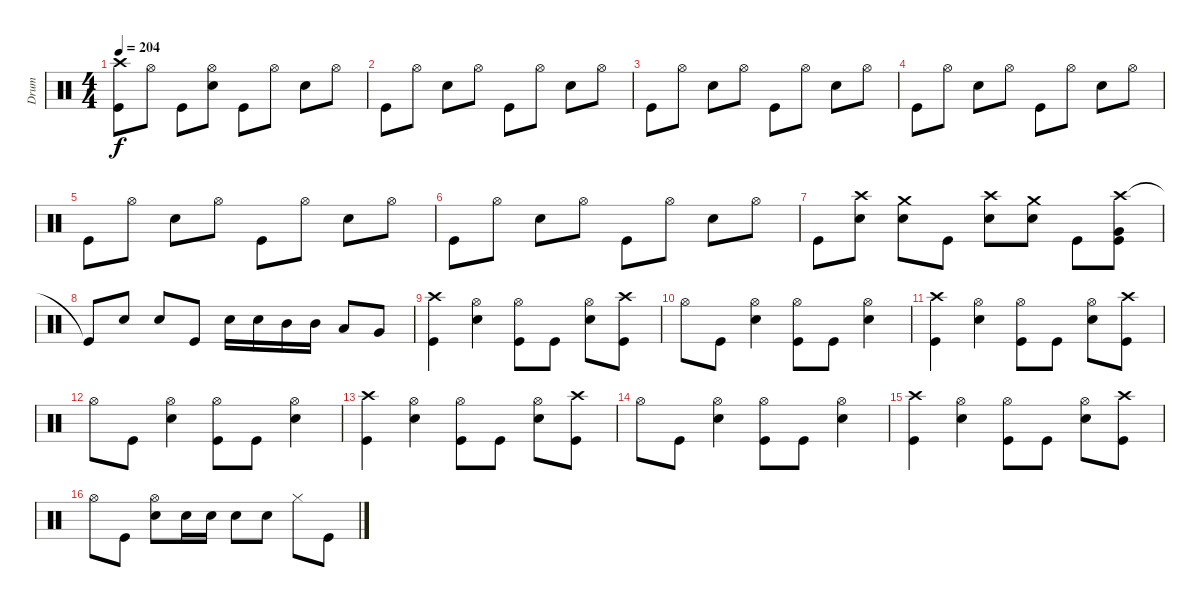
\track ("Drum" "Drum") {instrument percussion}
\staff {score}
\articulation defaults
\ts (4 4)
\tempo 204
\clef neutral
\ks c
("Crash high (hit)" "Kick (hit)").8{dy f} "Hi-Hat (open)".8 "Kick (hit)".8 ("Hi-Hat (open)" "Snare (hit) 2").8 "Kick (hit)".8 "Hi-Hat (open)".8 "Snare (hit) 2".8 "Hi-Hat (open)".8 |
"Kick (hit)".8 "Hi-Hat (open)".8 "Snare (hit) 2".8 "Hi-Hat (open)".8 "Kick (hit)".8 "Hi-Hat (open)".8 "Snare (hit) 2".8 "Hi-Hat (open)".8 |
"Kick (hit)".8 "Hi-Hat (open)".8 "Snare (hit) 2".8 "Hi-Hat (open)".8 "Kick (hit)".8 "Hi-Hat (open)".8 "Snare (hit) 2".8 "Hi-Hat (open)".8 |
"Kick (hit)".8 "Hi-Hat (open)".8 "Snare (hit) 2".8 "Hi-Hat (open)".8 "Kick (hit)".8 "Hi-Hat (open)".8 "Snare (hit) 2".8 "Hi-Hat (open)".8 |
"Kick (hit)".8 "Hi-Hat (open)".8 "Snare (hit) 2".8 "Hi-Hat (open)".8 "Kick (hit)".8 "Hi-Hat (open)".8 "Snare (hit) 2".8 "Hi-Hat (open)".8 |
"Kick (hit)".8 "Hi-Hat (open)".8 "Snare (hit) 2".8 "Hi-Hat (open)".8 "Kick (hit)".8 "Hi-Hat (open)".8 "Snare (hit) 2".8 "Hi-Hat (open)".8 |
"Kick (hit)".8 ("Crash high (hit)" "Snare (hit) 2").8 ("Crash medium (hit)" "Snare (hit) 2").8 "Kick (hit)".8 ("Crash high (hit)" "Snare (hit) 2").8 ("Crash medium (hit)" "Snare (hit) 2").8 "Kick (hit)".8 ("Crash high (hit)" "Very Low Tom (hit)" "Kick (hit)").8 |
"Kick (hit)"{t}.8 "Snare (hit) 2".8 "Snare (hit) 2".8 "Kick (hit)".8 "Snare (hit) 2".16 "Snare (hit) 2".16 "Mid Tom (hit)".16 "Mid Tom (hit)".16 "Low Tom (hit)".8 "Very Low Tom (hit)".8 |
("Crash high (hit)" "Kick (hit)").4 ("Hi-Hat (open)" "Snare (hit) 2").4 ("Hi-Hat (open)" "Kick (hit)").8 "Kick (hit)".8 ("Hi-Hat (open)" "Snare (hit) 2").8 ("Crash high (hit)" "Kick (hit)").8 |
"Hi-Hat (open)".8 "Kick (hit)".8 ("Hi-Hat (open)" "Snare (hit) 2").4 ("Hi-Hat (open)" "Kick (hit)").8 "Kick (hit)".8 ("Hi-Hat (open)" "Snare (hit) 2").4 |
("Crash high (hit)" "Kick (hit)").4 ("Hi-Hat (open)" "Snare (hit) 2").4 ("Hi-Hat (open)" "Kick (hit)").8 "Kick (hit)".8 ("Hi-Hat (open)" "Snare (hit) 2").8 ("Crash high (hit)" "Kick (hit)").8 |
"Hi-Hat (open)".8 "Kick (hit)".8 ("Hi-Hat (open)" "Snare (hit) 2").4 ("Hi-Hat (open)" "Kick (hit)").8 "Kick (hit)".8 ("Hi-Hat (open)" "Snare (hit) 2").4 |
("Crash high (hit)" "Kick (hit)").4 ("Hi-Hat (open)" "Snare (hit) 2").4 ("Hi-Hat (open)" "Kick (hit)").8 "Kick (hit)".8 ("Hi-Hat (open)" "Snare (hit) 2").8 ("Crash high (hit)" "Kick (hit)").8 |
"Hi-Hat (open)".8 "Kick (hit)".8 ("Hi-Hat (open)" "Snare (hit) 2").4 ("Hi-Hat (open)" "Kick (hit)").8 "Kick (hit)".8 ("Hi-Hat (open)" "Snare (hit) 2").4 |
("Crash high (hit)" "Kick (hit)").4 ("Hi-Hat (open)" "Snare (hit) 2").4 ("Hi-Hat (open)" "Kick (hit)").8 "Kick (hit)".8 ("Hi-Hat (open)" "Snare (hit) 2").8 ("Crash high (hit)" "Kick (hit)").8 |
"Hi-Hat (open)".8 "Kick (hit)".8 ("Hi-Hat (open)" "Snare (hit) 2").8 "Snare (hit) 2".16 "Snare (hit) 2".16 "Snare (hit) 2".8 "Snare (hit) 2".8 "Hi-Hat (closed)".8 "Kick (hit)".8
